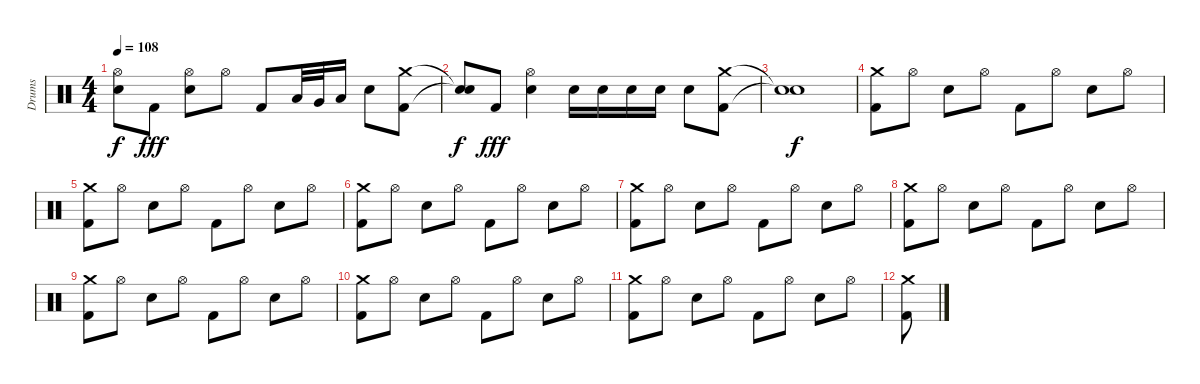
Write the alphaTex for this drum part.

\track ("Drums" "Drums") {instrument percussion}
\staff {score}
\articulation defaults
\ts (4 4)
\tempo 108
\clef neutral
\ks c
("Hi-Hat (open)"{t} "Snare (hit)"{t}).8{dy f} "Kick (hit) 2".8{dy fff} ("Hi-Hat (open)" "Electric Snare (hit)").8 "Hi-Hat (open)".8 "Kick (hit) 2".8 "Low Tom (hit)".32 "Very Low Tom (hit)".32 "Low Floor Tom (hit)".16 "Electric Snare (hit)".8 ("Crash medium (hit)" "Kick (hit) 2").8 |
("Snare (hit)"{t} "Snare (hit)"{t}).8{dy f} "Kick (hit) 2".8{dy fff} ("Hi-Hat (open)" "Electric Snare (hit)").4 "Electric Snare (hit)".16 "Electric Snare (hit)".16 "Electric Snare (hit)".16 "Electric Snare (hit)".16 "Electric Snare (hit)".8 ("Crash medium (hit)" "Kick (hit) 2").8 |
("Snare (hit)"{t} "Snare (hit)"{t}).1{dy f} |
("Crash medium (hit)" "Kick (hit) 2").8 "Hi-Hat (open)".8 "Electric Snare (hit)".8 "Hi-Hat (open)".8 "Kick (hit) 2".8 "Hi-Hat (open)".8 "Electric Snare (hit)".8 "Hi-Hat (open)".8 |
("Crash medium (hit)" "Kick (hit) 2").8 "Hi-Hat (open)".8 "Electric Snare (hit)".8 "Hi-Hat (open)".8 "Kick (hit) 2".8 "Hi-Hat (open)".8 "Electric Snare (hit)".8 "Hi-Hat (open)".8 |
("Crash medium (hit)" "Kick (hit) 2").8 "Hi-Hat (open)".8 "Electric Snare (hit)".8 "Hi-Hat (open)".8 "Kick (hit) 2".8 "Hi-Hat (open)".8 "Electric Snare (hit)".8 "Hi-Hat (open)".8 |
("Crash medium (hit)" "Kick (hit) 2").8 "Hi-Hat (open)".8 "Electric Snare (hit)".8 "Hi-Hat (open)".8 "Kick (hit) 2".8 "Hi-Hat (open)".8 "Electric Snare (hit)".8 "Hi-Hat (open)".8 |
("Crash medium (hit)" "Kick (hit) 2").8 "Hi-Hat (open)".8 "Electric Snare (hit)".8 "Hi-Hat (open)".8 "Kick (hit) 2".8 "Hi-Hat (open)".8 "Electric Snare (hit)".8 "Hi-Hat (open)".8 |
("Crash medium (hit)" "Kick (hit) 2").8 "Hi-Hat (open)".8 "Electric Snare (hit)".8 "Hi-Hat (open)".8 "Kick (hit) 2".8 "Hi-Hat (open)".8 "Electric Snare (hit)".8 "Hi-Hat (open)".8 |
("Crash medium (hit)" "Kick (hit) 2").8 "Hi-Hat (open)".8 "Electric Snare (hit)".8 "Hi-Hat (open)".8 "Kick (hit) 2".8 "Hi-Hat (open)".8 "Electric Snare (hit)".8 "Hi-Hat (open)".8 |
("Crash medium (hit)" "Kick (hit) 2").8 "Hi-Hat (open)".8 "Electric Snare (hit)".8 "Hi-Hat (open)".8 "Kick (hit) 2".8 "Hi-Hat (open)".8 "Electric Snare (hit)".8 "Hi-Hat (open)".8 |
("Crash medium (hit)" "Kick (hit) 2").8
